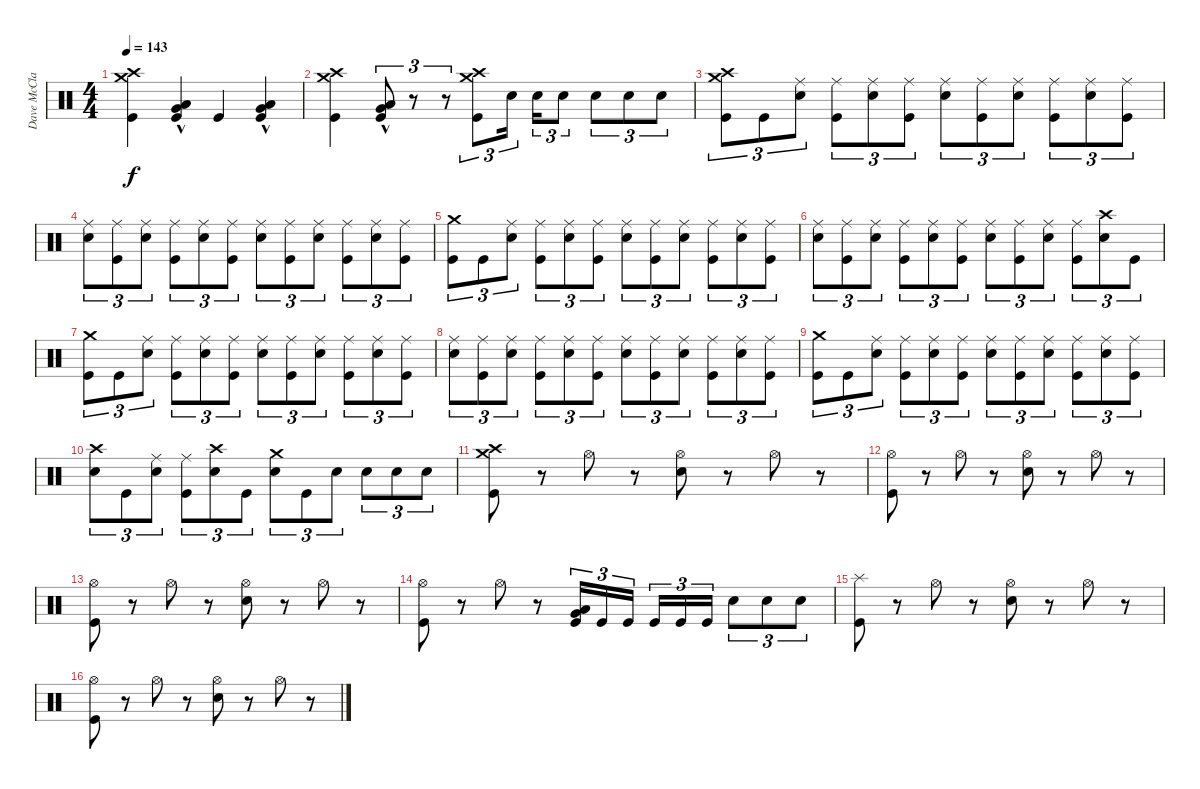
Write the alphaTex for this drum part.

\track ("Dave McClaine" "Dave McCla") {instrument percussion}
\staff {score}
\articulation defaults
\ts (4 4)
\tempo 143
\clef neutral
\ks c
("Kick (hit)" "Crash high (hit)" "Crash medium (hit)").4{dy f} ("Very Low Tom (hit)"{hac} "Low Floor Tom (hit)"{hac} "Kick (hit)").4 "Kick (hit)".4 ("Low Floor Tom (hit)"{hac} "Very Low Tom (hit)"{hac} "Kick (hit)").4 |
("Kick (hit)" "Crash high (hit)" "Crash medium (hit)").4 ("Very Low Tom (hit)"{hac} "Low Floor Tom (hit)"{hac} "Kick (hit)").8{tu (3 2)} r.8{tu (3 2)} r.8{tu (3 2)} ("Kick (hit)" "Crash medium (hit)" "Crash high (hit)").8{tu (3 2)} "Snare (hit) 2".16{tu (3 2)} "Snare (hit) 2".16{tu (3 2)} "Snare (hit) 2".8{tu (3 2)} "Snare (hit) 2".8{tu (3 2)} "Snare (hit) 2".8{tu (3 2)} "Snare (hit) 2".8{tu (3 2)} |
("Crash high (hit)" "Crash medium (hit)" "Kick (hit)").8{tu (3 2)} "Kick (hit)".8{tu (3 2)} ("Snare (hit) 2" "Ride (middle)").8{tu (3 2)} ("Kick (hit)" "Ride (middle)").8{tu (3 2)} ("Snare (hit) 2" "Ride (middle)").8{tu (3 2)} ("Kick (hit)" "Ride (middle)").8{tu (3 2)} ("Snare (hit) 2" "Ride (middle)").8{tu (3 2)} ("Kick (hit)" "Ride (middle)").8{tu (3 2)} ("Snare (hit) 2" "Ride (middle)").8{tu (3 2)} ("Kick (hit)" "Ride (middle)").8{tu (3 2)} ("Snare (hit) 2" "Ride (middle)").8{tu (3 2)} ("Kick (hit)" "Ride (middle)").8{tu (3 2)} |
("Snare (hit) 2" "Ride (middle)").8{tu (3 2)} ("Kick (hit)" "Ride (middle)").8{tu (3 2)} ("Snare (hit) 2" "Ride (middle)").8{tu (3 2)} ("Kick (hit)" "Ride (middle)").8{tu (3 2)} ("Snare (hit) 2" "Ride (middle)").8{tu (3 2)} ("Kick (hit)" "Ride (middle)").8{tu (3 2)} ("Snare (hit) 2" "Ride (middle)").8{tu (3 2)} ("Kick (hit)" "Ride (middle)").8{tu (3 2)} ("Snare (hit) 2" "Ride (middle)").8{tu (3 2)} ("Kick (hit)" "Ride (middle)").8{tu (3 2)} ("Snare (hit) 2" "Ride (middle)").8{tu (3 2)} ("Kick (hit)" "Ride (middle)").8{tu (3 2)} |
("Crash medium (hit)" "Kick (hit)").8{tu (3 2)} "Kick (hit)".8{tu (3 2)} ("Snare (hit) 2" "Ride (middle)").8{tu (3 2)} ("Kick (hit)" "Ride (middle)").8{tu (3 2)} ("Snare (hit) 2" "Ride (middle)").8{tu (3 2)} ("Kick (hit)" "Ride (middle)").8{tu (3 2)} ("Snare (hit) 2" "Ride (middle)").8{tu (3 2)} ("Kick (hit)" "Ride (middle)").8{tu (3 2)} ("Snare (hit) 2" "Ride (middle)").8{tu (3 2)} ("Kick (hit)" "Ride (middle)").8{tu (3 2)} ("Snare (hit) 2" "Ride (middle)").8{tu (3 2)} ("Kick (hit)" "Ride (middle)").8{tu (3 2)} |
("Snare (hit) 2" "Ride (middle)").8{tu (3 2)} ("Kick (hit)" "Ride (middle)").8{tu (3 2)} ("Snare (hit) 2" "Ride (middle)").8{tu (3 2)} ("Kick (hit)" "Ride (middle)").8{tu (3 2)} ("Snare (hit) 2" "Ride (middle)").8{tu (3 2)} ("Kick (hit)" "Ride (middle)").8{tu (3 2)} ("Snare (hit) 2" "Ride (middle)").8{tu (3 2)} ("Kick (hit)" "Ride (middle)").8{tu (3 2)} ("Snare (hit) 2" "Ride (middle)").8{tu (3 2)} ("Kick (hit)" "Ride (middle)").8{tu (3 2)} ("Snare (hit) 2" "Crash high (hit)").8{tu (3 2)} "Kick (hit)".8{tu (3 2)} |
("Crash medium (hit)" "Kick (hit)").8{tu (3 2)} "Kick (hit)".8{tu (3 2)} ("Snare (hit) 2" "Ride (middle)").8{tu (3 2)} ("Kick (hit)" "Ride (middle)").8{tu (3 2)} ("Snare (hit) 2" "Ride (middle)").8{tu (3 2)} ("Kick (hit)" "Ride (middle)").8{tu (3 2)} ("Snare (hit) 2" "Ride (middle)").8{tu (3 2)} ("Kick (hit)" "Ride (middle)").8{tu (3 2)} ("Snare (hit) 2" "Ride (middle)").8{tu (3 2)} ("Kick (hit)" "Ride (middle)").8{tu (3 2)} ("Snare (hit) 2" "Ride (middle)").8{tu (3 2)} ("Kick (hit)" "Ride (middle)").8{tu (3 2)} |
("Snare (hit) 2" "Ride (middle)").8{tu (3 2)} ("Kick (hit)" "Ride (middle)").8{tu (3 2)} ("Snare (hit) 2" "Ride (middle)").8{tu (3 2)} ("Kick (hit)" "Ride (middle)").8{tu (3 2)} ("Snare (hit) 2" "Ride (middle)").8{tu (3 2)} ("Kick (hit)" "Ride (middle)").8{tu (3 2)} ("Snare (hit) 2" "Ride (middle)").8{tu (3 2)} ("Kick (hit)" "Ride (middle)").8{tu (3 2)} ("Snare (hit) 2" "Ride (middle)").8{tu (3 2)} ("Kick (hit)" "Ride (middle)").8{tu (3 2)} ("Snare (hit) 2" "Ride (middle)").8{tu (3 2)} ("Kick (hit)" "Ride (middle)").8{tu (3 2)} |
("Crash medium (hit)" "Kick (hit)").8{tu (3 2)} "Kick (hit)".8{tu (3 2)} ("Snare (hit) 2" "Ride (middle)").8{tu (3 2)} ("Kick (hit)" "Ride (middle)").8{tu (3 2)} ("Snare (hit) 2" "Ride (middle)").8{tu (3 2)} ("Kick (hit)" "Ride (middle)").8{tu (3 2)} ("Snare (hit) 2" "Ride (middle)").8{tu (3 2)} ("Kick (hit)" "Ride (middle)").8{tu (3 2)} ("Snare (hit) 2" "Ride (middle)").8{tu (3 2)} ("Kick (hit)" "Ride (middle)").8{tu (3 2)} ("Snare (hit) 2" "Ride (middle)").8{tu (3 2)} ("Kick (hit)" "Ride (middle)").8{tu (3 2)} |
("Snare (hit) 2" "Crash high (hit)").8{tu (3 2)} "Kick (hit)".8{tu (3 2)} ("Snare (hit) 2" "Ride (middle)").8{tu (3 2)} ("Kick (hit)" "Ride (middle)").8{tu (3 2)} ("Snare (hit) 2" "Crash high (hit)").8{tu (3 2)} "Kick (hit)".8{tu (3 2)} ("Snare (hit) 2" "Crash medium (hit)").8{tu (3 2)} "Kick (hit)".8{tu (3 2)} "Snare (hit) 2".8{tu (3 2)} "Snare (hit) 2".8{tu (3 2)} "Snare (hit) 2".8{tu (3 2)} "Snare (hit) 2".8{tu (3 2)} |
("Kick (hit)" "Crash high (hit)" "Crash medium (hit)").8 r.8 "Hi-Hat (open)".8 r.8 ("Hi-Hat (open)" "Snare (hit) 2").8 r.8 "Hi-Hat (open)".8 r.8 |
("Kick (hit)" "Hi-Hat (open)").8 r.8 "Hi-Hat (open)".8 r.8 ("Hi-Hat (open)" "Snare (hit) 2").8 r.8 "Hi-Hat (open)".8 r.8 |
("Kick (hit)" "Hi-Hat (open)").8 r.8 "Hi-Hat (open)".8 r.8 ("Hi-Hat (open)" "Snare (hit) 2").8 r.8 "Hi-Hat (open)".8 r.8 |
("Kick (hit)" "Hi-Hat (open)").8 r.8 "Hi-Hat (open)".8 r.8 ("Low Tom (hit)" "Very Low Tom (hit)" "Kick (hit)").16{tu (3 2)} "Kick (hit)".16{tu (3 2)} "Kick (hit)".16{tu (3 2)} "Kick (hit)".16{tu (3 2)} "Kick (hit)".16{tu (3 2)} "Kick (hit)".16{tu (3 2)} "Snare (hit) 2".8{tu (3 2)} "Snare (hit) 2".8{tu (3 2)} "Snare (hit) 2".8{tu (3 2)} |
("Kick (hit)" "Splash (hit)").8 r.8 "Hi-Hat (open)".8 r.8 ("Hi-Hat (open)" "Snare (hit) 2").8 r.8 "Hi-Hat (open)".8 r.8 |
("Kick (hit)" "Hi-Hat (open)").8 r.8 "Hi-Hat (open)".8 r.8 ("Hi-Hat (open)" "Snare (hit) 2").8 r.8 "Hi-Hat (open)".8 r.8
